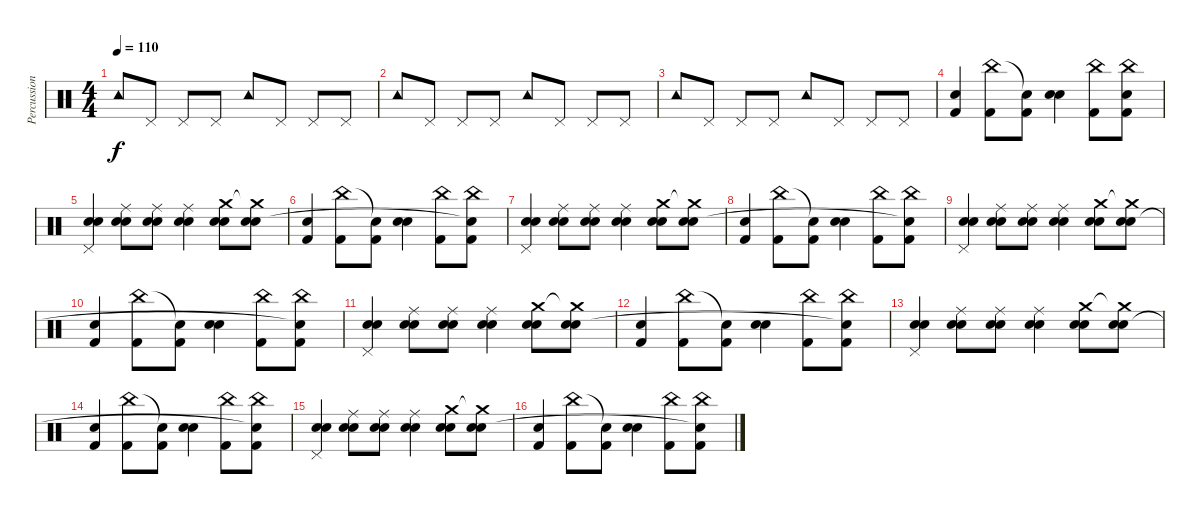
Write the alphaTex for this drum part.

\track ("Percussion" "Percussion") {instrument percussion}
\staff {score}
\articulation defaults
\ts (4 4)
\tempo 110
\clef neutral
\ks c "Tambourine (hit)".8{dy f} "Pedal Hi-Hat (hit)".8 "Pedal Hi-Hat (hit)".8 "Pedal Hi-Hat (hit)".8 "Tambourine (hit)".8 "Pedal Hi-Hat (hit)".8 "Pedal Hi-Hat (hit)".8 "Pedal Hi-Hat (hit)".8
|
"Tambourine (hit)".8 "Pedal Hi-Hat (hit)".8 "Pedal Hi-Hat (hit)".8 "Pedal Hi-Hat (hit)".8 "Tambourine (hit)".8 "Pedal Hi-Hat (hit)".8 "Pedal Hi-Hat (hit)".8 "Pedal Hi-Hat (hit)".8 |
"Tambourine (hit)".8 "Pedal Hi-Hat (hit)".8 "Pedal Hi-Hat (hit)".8 "Pedal Hi-Hat (hit)".8 "Tambourine (hit)".8 "Pedal Hi-Hat (hit)".8 "Pedal Hi-Hat (hit)".8 "Pedal Hi-Hat (hit)".8 |
("Kick (hit) 2" "Electric Snare (hit)").4 ("Kick (hit) 2" "China (hit)").8 ("Kick (hit) 2" "Snare (hit)"{t}).8 ("Hand Clap (hit)" "Electric Snare (hit)").4 ("Kick (hit) 2" "China (hit)").8 ("Kick (hit) 2" "China (hit)" "Snare (hit)").8 |
("Pedal Hi-Hat (hit)" "Electric Snare (hit)" "Snare (hit) 2").4 ("Snare (hit) 2" "Ride (middle)" "Electric Snare (hit)").8 ("Snare (hit) 2" "Ride (middle)" "Electric Snare (hit)").8 ("Snare (hit) 2" "Ride (middle)" "Electric Snare (hit)").4 ("Snare (hit) 2" "Crash medium (hit)" "Electric Snare (hit)").8 ("Snare (hit) 2" "Crash medium (hit)"{t} "Electric Snare (hit)").8 |
("Kick (hit) 2" "Electric Snare (hit)").4 ("Kick (hit) 2" "China (hit)").8 ("Kick (hit) 2" "Snare (hit)"{t}).8 ("Hand Clap (hit)" "Electric Snare (hit)").4 ("Kick (hit) 2" "China (hit)").8 ("Kick (hit) 2" "China (hit)" "Snare (hit)"{t}).8 |
("Pedal Hi-Hat (hit)" "Electric Snare (hit)" "Snare (hit) 2").4 ("Snare (hit) 2" "Ride (middle)" "Electric Snare (hit)").8 ("Snare (hit) 2" "Ride (middle)" "Electric Snare (hit)").8 ("Snare (hit) 2" "Ride (middle)" "Electric Snare (hit)").4 ("Snare (hit) 2" "Crash medium (hit)" "Electric Snare (hit)").8 ("Snare (hit) 2" "Crash medium (hit)"{t} "Electric Snare (hit)").8 |
("Kick (hit) 2" "Electric Snare (hit)").4 ("Kick (hit) 2" "China (hit)").8 ("Kick (hit) 2" "Snare (hit)"{t}).8 ("Hand Clap (hit)" "Electric Snare (hit)").4 ("Kick (hit) 2" "China (hit)").8 ("Kick (hit) 2" "China (hit)" "Snare (hit)"{t}).8 |
("Pedal Hi-Hat (hit)" "Electric Snare (hit)" "Snare (hit) 2").4 ("Snare (hit) 2" "Ride (middle)" "Electric Snare (hit)").8 ("Snare (hit) 2" "Ride (middle)" "Electric Snare (hit)").8 ("Snare (hit) 2" "Ride (middle)" "Electric Snare (hit)").4 ("Snare (hit) 2" "Crash medium (hit)" "Electric Snare (hit)").8 ("Snare (hit) 2" "Crash medium (hit)"{t} "Electric Snare (hit)").8 |
("Kick (hit) 2" "Electric Snare (hit)").4 ("Kick (hit) 2" "China (hit)").8 ("Kick (hit) 2" "Snare (hit)"{t}).8 ("Hand Clap (hit)" "Electric Snare (hit)").4 ("Kick (hit) 2" "China (hit)").8 ("Kick (hit) 2" "China (hit)" "Snare (hit)"{t}).8 |
("Pedal Hi-Hat (hit)" "Electric Snare (hit)" "Snare (hit) 2").4 ("Snare (hit) 2" "Ride (middle)" "Electric Snare (hit)").8 ("Snare (hit) 2" "Ride (middle)" "Electric Snare (hit)").8 ("Snare (hit) 2" "Ride (middle)" "Electric Snare (hit)").4 ("Snare (hit) 2" "Crash medium (hit)" "Electric Snare (hit)").8 ("Snare (hit) 2" "Crash medium (hit)"{t} "Electric Snare (hit)").8 |
("Kick (hit) 2" "Electric Snare (hit)").4 ("Kick (hit) 2" "China (hit)").8 ("Kick (hit) 2" "Snare (hit)"{t}).8 ("Hand Clap (hit)" "Electric Snare (hit)").4 ("Kick (hit) 2" "China (hit)").8 ("Kick (hit) 2" "China (hit)" "Snare (hit)"{t}).8 |
("Pedal Hi-Hat (hit)" "Electric Snare (hit)" "Snare (hit) 2").4 ("Snare (hit) 2" "Ride (middle)" "Electric Snare (hit)").8 ("Snare (hit) 2" "Ride (middle)" "Electric Snare (hit)").8 ("Snare (hit) 2" "Ride (middle)" "Electric Snare (hit)").4 ("Snare (hit) 2" "Crash medium (hit)" "Electric Snare (hit)").8 ("Snare (hit) 2" "Crash medium (hit)"{t} "Electric Snare (hit)").8 |
("Kick (hit) 2" "Electric Snare (hit)").4 ("Kick (hit) 2" "China (hit)").8 ("Kick (hit) 2" "Snare (hit)"{t}).8 ("Hand Clap (hit)" "Electric Snare (hit)").4 ("Kick (hit) 2" "China (hit)").8 ("Kick (hit) 2" "China (hit)" "Snare (hit)"{t}).8 |
("Pedal Hi-Hat (hit)" "Electric Snare (hit)" "Snare (hit) 2").4 ("Snare (hit) 2" "Ride (middle)" "Electric Snare (hit)").8 ("Snare (hit) 2" "Ride (middle)" "Electric Snare (hit)").8 ("Snare (hit) 2" "Ride (middle)" "Electric Snare (hit)").4 ("Snare (hit) 2" "Crash medium (hit)" "Electric Snare (hit)").8 ("Snare (hit) 2" "Crash medium (hit)"{t} "Electric Snare (hit)").8 |
("Kick (hit) 2" "Electric Snare (hit)").4 ("Kick (hit) 2" "China (hit)").8 ("Kick (hit) 2" "Snare (hit)"{t}).8 ("Hand Clap (hit)" "Electric Snare (hit)").4 ("Kick (hit) 2" "China (hit)").8 ("Kick (hit) 2" "China (hit)" "Snare (hit)"{t}).8
